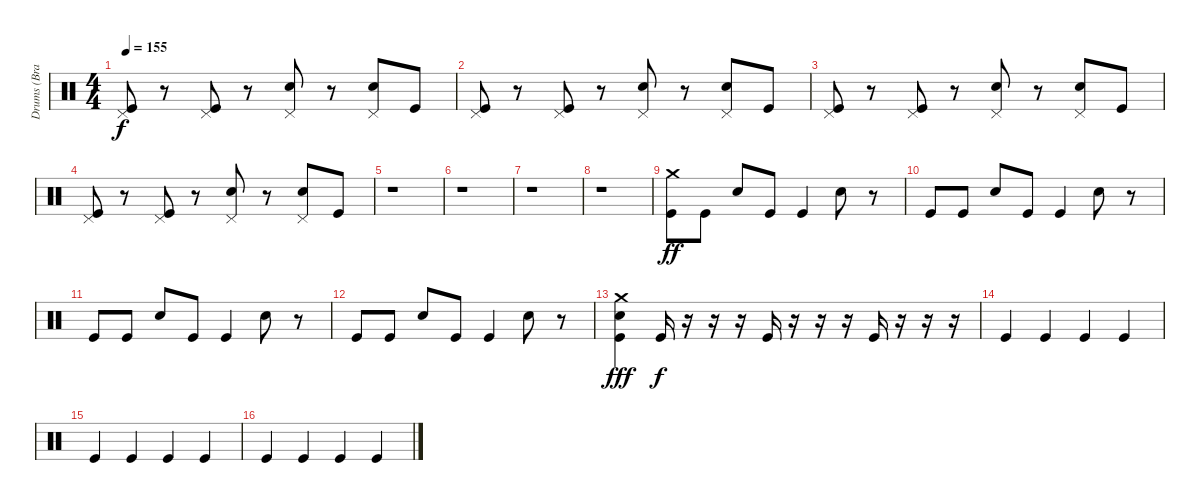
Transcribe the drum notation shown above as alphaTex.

\track ("Drums (Bradie Webb)" "Drums (Bra") {instrument percussion}
\staff {score}
\articulation defaults
\ts (4 4)
\tempo 155
\clef neutral
\ks c
("Pedal Hi-Hat (hit)" "Kick (hit)").8{dy f} r.8 ("Pedal Hi-Hat (hit)" "Kick (hit)").8 r.8 ("Pedal Hi-Hat (hit)" "Snare (hit) 2").8 r.8 ("Pedal Hi-Hat (hit)" "Snare (hit) 2").8 "Kick (hit)".8 |
("Pedal Hi-Hat (hit)" "Kick (hit)").8 r.8 ("Pedal Hi-Hat (hit)" "Kick (hit)").8 r.8 ("Pedal Hi-Hat (hit)" "Snare (hit) 2").8 r.8 ("Pedal Hi-Hat (hit)" "Snare (hit) 2").8 "Kick (hit)".8 |
("Pedal Hi-Hat (hit)" "Kick (hit)").8 r.8 ("Pedal Hi-Hat (hit)" "Kick (hit)").8 r.8 ("Pedal Hi-Hat (hit)" "Snare (hit) 2").8 r.8 ("Pedal Hi-Hat (hit)" "Snare (hit) 2").8 "Kick (hit)".8 |
("Pedal Hi-Hat (hit)" "Kick (hit)").8 r.8 ("Pedal Hi-Hat (hit)" "Kick (hit)").8 r.8 ("Pedal Hi-Hat (hit)" "Snare (hit) 2").8 r.8 ("Pedal Hi-Hat (hit)" "Snare (hit) 2").8 "Kick (hit)".8 |
r.1 |
r.1 |
r.1 |
r.1 |
("Crash medium (hit)" "Kick (hit)").8{dy ff} "Kick (hit)".8 "Snare (hit) 2".8 "Kick (hit)".8 "Kick (hit)".4 "Snare (hit) 2".8 r.8 |
"Kick (hit)".8 "Kick (hit)".8 "Snare (hit) 2".8 "Kick (hit)".8 "Kick (hit)".4 "Snare (hit) 2".8 r.8 |
"Kick (hit)".8 "Kick (hit)".8 "Snare (hit) 2".8 "Kick (hit)".8 "Kick (hit)".4 "Snare (hit) 2".8 r.8 |
"Kick (hit)".8 "Kick (hit)".8 "Snare (hit) 2".8 "Kick (hit)".8 "Kick (hit)".4 "Snare (hit) 2".8 r.8 |
("Crash medium (hit)" "Kick (hit)" "Snare (hit) 2").4{dy fff} "Kick (hit)".16{dy f} r.16 r.16 r.16 "Kick (hit)".16 r.16 r.16 r.16 "Kick (hit)".16 r.16 r.16 r.16 |
"Kick (hit)".4 "Kick (hit)".4 "Kick (hit)".4 "Kick (hit)".4 |
"Kick (hit)".4 "Kick (hit)".4 "Kick (hit)".4 "Kick (hit)".4 |
"Kick (hit)".4 "Kick (hit)".4 "Kick (hit)".4 "Kick (hit)".4
